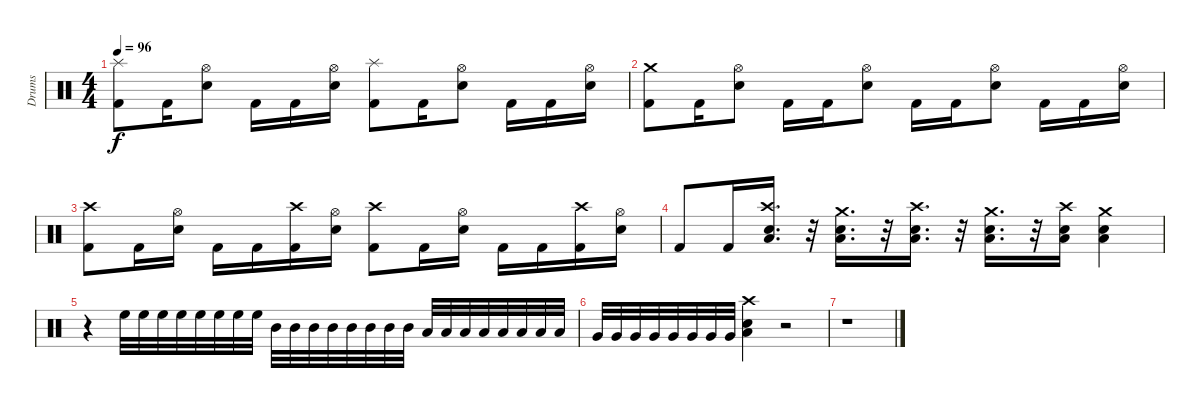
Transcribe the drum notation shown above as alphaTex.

\track ("Drums" "Drums") {instrument percussion}
\staff {score}
\articulation defaults
\ts (4 4)
\tempo 96
\clef neutral
\ks c
("Kick (hit) 2" "Splash (hit)").8{dy f} "Kick (hit) 2".16 ("Snare (hit) 2" "Hi-Hat (open)").8 "Kick (hit) 2".16 "Kick (hit) 2".16 ("Snare (hit) 2" "Hi-Hat (open)").16 ("Kick (hit) 2" "Splash (hit)").8 "Kick (hit) 2".16 ("Snare (hit) 2" "Hi-Hat (open)").8 "Kick (hit) 2".16 "Kick (hit) 2".16 ("Snare (hit) 2" "Hi-Hat (open)").16 |
("Kick (hit) 2" "Crash medium (hit)").8 "Kick (hit) 2".16 ("Snare (hit) 2" "Hi-Hat (open)").8 "Kick (hit) 2".16 "Kick (hit) 2".16 ("Snare (hit) 2" "Hi-Hat (open)").8 "Kick (hit) 2".16 "Kick (hit) 2".16 ("Snare (hit) 2" "Hi-Hat (open)").8 "Kick (hit) 2".16 "Kick (hit) 2".16 ("Snare (hit) 2" "Hi-Hat (open)").16 |
("Kick (hit) 2" "Crash high (hit)").8 "Kick (hit) 2".16 ("Snare (hit) 2" "Hi-Hat (open)").16 "Kick (hit) 2".16 "Kick (hit) 2".16 ("Kick (hit) 2" "Crash high (hit)").16 ("Snare (hit) 2" "Hi-Hat (open)").16 ("Kick (hit) 2" "Crash high (hit)").8 "Kick (hit) 2".16 ("Snare (hit) 2" "Hi-Hat (open)").16 "Kick (hit) 2".16 "Kick (hit) 2".16 ("Kick (hit) 2" "Crash high (hit)").16 ("Snare (hit) 2" "Hi-Hat (open)").16 |
"Kick (hit) 2".8 "Kick (hit) 2".16 ("Snare (hit) 2" "Low Floor Tom (hit)" "Crash high (hit)").16{d} r.32 ("Snare (hit) 2" "Low Tom (hit)" "Crash medium (hit)").16{d} r.32 ("Snare (hit) 2" "Low Floor Tom (hit)" "Crash high (hit)").16{d} r.32 ("Snare (hit) 2" "Low Tom (hit)" "Crash medium (hit)").16{d} r.32 ("Snare (hit) 2" "Low Floor Tom (hit)" "Crash high (hit)").16 ("Snare (hit) 2" "Low Tom (hit)" "Crash medium (hit)").4 |
r.4 "High Floor Tom (hit)".32 "High Floor Tom (hit)".32 "High Floor Tom (hit)".32 "High Floor Tom (hit)".32 "High Floor Tom (hit)".32 "High Floor Tom (hit)".32 "High Floor Tom (hit)".32 "High Floor Tom (hit)".32 "Mid Tom (hit)".32 "Mid Tom (hit)".32 "Mid Tom (hit)".32 "Mid Tom (hit)".32 "Mid Tom (hit)".32 "Mid Tom (hit)".32 "Mid Tom (hit)".32 "Mid Tom (hit)".32 "Low Tom (hit)".32 "Low Tom (hit)".32 "Low Tom (hit)".32 "Low Tom (hit)".32 "Low Tom (hit)".32 "Low Tom (hit)".32 "Low Tom (hit)".32 "Low Tom (hit)".32 |
"Very Low Tom (hit)".32 "Very Low Tom (hit)".32 "Very Low Tom (hit)".32 "Very Low Tom (hit)".32 "Very Low Tom (hit)".32 "Very Low Tom (hit)".32 "Very Low Tom (hit)".32 "Very Low Tom (hit)".32 ("Snare (hit) 2" "Low Tom (hit)" "Crash high (hit)").4 r.2 |
r.1
